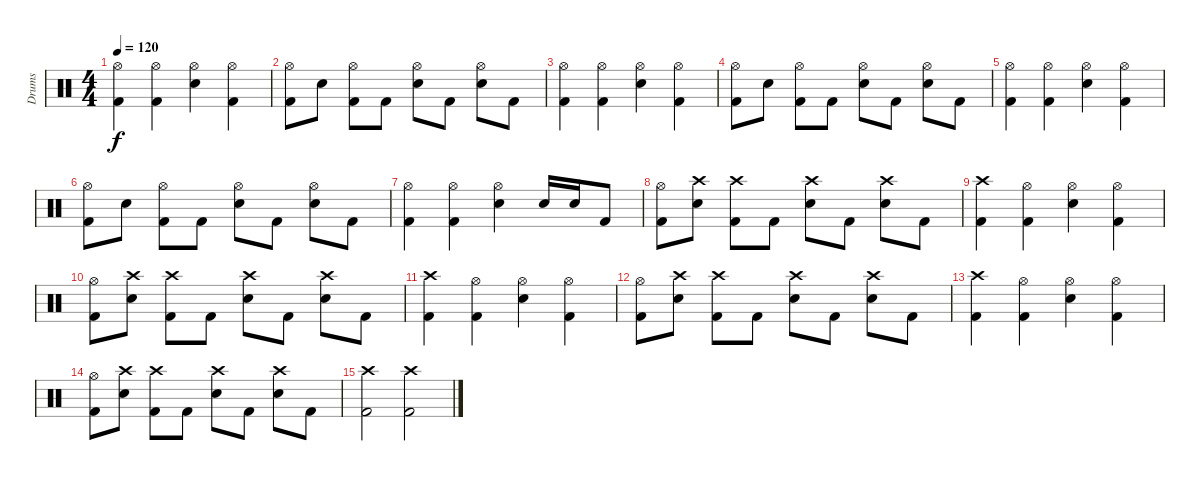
\track ("Drums" "Drums") {instrument percussion}
\staff {score}
\articulation defaults
\ts (4 4)
\tempo 120
\clef neutral
\ks c
("Hi-Hat (open)" "Kick (hit) 2").4{dy f} ("Hi-Hat (open)" "Kick (hit) 2").4 ("Hi-Hat (open)" "Snare (hit) 2").4 ("Hi-Hat (open)" "Kick (hit) 2").4 |
("Hi-Hat (open)" "Kick (hit) 2").8 "Snare (hit) 2".8 ("Hi-Hat (open)" "Kick (hit) 2").8 "Kick (hit) 2".8 ("Hi-Hat (open)" "Snare (hit) 2").8 "Kick (hit) 2".8 ("Hi-Hat (open)" "Snare (hit) 2").8 "Kick (hit) 2".8 |
("Hi-Hat (open)" "Kick (hit) 2").4 ("Hi-Hat (open)" "Kick (hit) 2").4 ("Hi-Hat (open)" "Snare (hit) 2").4 ("Hi-Hat (open)" "Kick (hit) 2").4 |
("Hi-Hat (open)" "Kick (hit) 2").8 "Snare (hit) 2".8 ("Hi-Hat (open)" "Kick (hit) 2").8 "Kick (hit) 2".8 ("Hi-Hat (open)" "Snare (hit) 2").8 "Kick (hit) 2".8 ("Hi-Hat (open)" "Snare (hit) 2").8 "Kick (hit) 2".8 |
("Hi-Hat (open)" "Kick (hit) 2").4 ("Hi-Hat (open)" "Kick (hit) 2").4 ("Hi-Hat (open)" "Snare (hit) 2").4 ("Hi-Hat (open)" "Kick (hit) 2").4 |
("Hi-Hat (open)" "Kick (hit) 2").8 "Snare (hit) 2".8 ("Hi-Hat (open)" "Kick (hit) 2").8 "Kick (hit) 2".8 ("Hi-Hat (open)" "Snare (hit) 2").8 "Kick (hit) 2".8 ("Hi-Hat (open)" "Snare (hit) 2").8 "Kick (hit) 2".8 |
("Hi-Hat (open)" "Kick (hit) 2").4 ("Hi-Hat (open)" "Kick (hit) 2").4 ("Hi-Hat (open)" "Snare (hit) 2").4 "Snare (hit) 2".16 "Snare (hit) 2".16 "Kick (hit) 2".8 |
("Hi-Hat (open)" "Kick (hit) 2").8 ("Crash high (hit)" "Snare (hit) 2").8 ("Crash high (hit)" "Kick (hit) 2").8 "Kick (hit) 2".8 ("Crash high (hit)" "Snare (hit) 2").8 "Kick (hit) 2".8 ("Crash high (hit)" "Snare (hit) 2").8 "Kick (hit) 2".8 |
("Crash high (hit)" "Kick (hit) 2").4 ("Hi-Hat (open)" "Kick (hit) 2").4 ("Hi-Hat (open)" "Snare (hit) 2").4 ("Hi-Hat (open)" "Kick (hit) 2").4 |
("Hi-Hat (open)" "Kick (hit) 2").8 ("Crash high (hit)" "Snare (hit) 2").8 ("Crash high (hit)" "Kick (hit) 2").8 "Kick (hit) 2".8 ("Crash high (hit)" "Snare (hit) 2").8 "Kick (hit) 2".8 ("Crash high (hit)" "Snare (hit) 2").8 "Kick (hit) 2".8 |
("Crash high (hit)" "Kick (hit) 2").4 ("Hi-Hat (open)" "Kick (hit) 2").4 ("Hi-Hat (open)" "Snare (hit) 2").4 ("Hi-Hat (open)" "Kick (hit) 2").4 |
("Hi-Hat (open)" "Kick (hit) 2").8 ("Crash high (hit)" "Snare (hit) 2").8 ("Crash high (hit)" "Kick (hit) 2").8 "Kick (hit) 2".8 ("Crash high (hit)" "Snare (hit) 2").8 "Kick (hit) 2".8 ("Crash high (hit)" "Snare (hit) 2").8 "Kick (hit) 2".8 |
("Crash high (hit)" "Kick (hit) 2").4 ("Hi-Hat (open)" "Kick (hit) 2").4 ("Hi-Hat (open)" "Snare (hit) 2").4 ("Hi-Hat (open)" "Kick (hit) 2").4 |
("Hi-Hat (open)" "Kick (hit) 2").8 ("Crash high (hit)" "Snare (hit) 2").8 ("Crash high (hit)" "Kick (hit) 2").8 "Kick (hit) 2".8 ("Crash high (hit)" "Snare (hit) 2").8 "Kick (hit) 2".8 ("Crash high (hit)" "Snare (hit) 2").8 "Kick (hit) 2".8 |
("Crash high (hit)" "Kick (hit) 2").2 ("Crash high (hit)" "Kick (hit) 2").2
